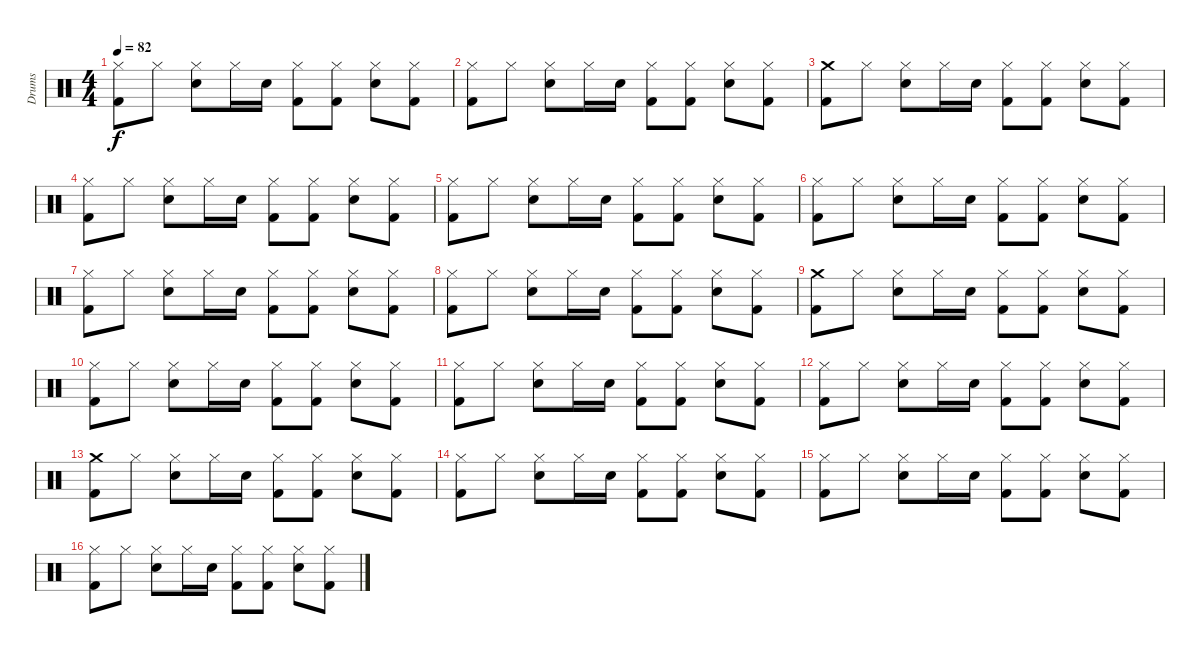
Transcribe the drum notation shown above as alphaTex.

\track ("Drums" "Drums") {instrument percussion}
\staff {score}
\articulation defaults
\ts (4 4)
\tempo 82
\clef neutral
\ks c
("Hi-Hat (closed)" "Kick (hit) 2").8{dy f} "Hi-Hat (closed)".8 ("Hi-Hat (closed)" "Electric Snare (hit)").8 "Hi-Hat (closed)".16 "Electric Snare (hit)".16 ("Hi-Hat (closed)" "Kick (hit) 2").8 ("Hi-Hat (closed)" "Kick (hit) 2").8 ("Hi-Hat (closed)" "Electric Snare (hit)").8 ("Hi-Hat (closed)" "Kick (hit) 2").8 |
("Hi-Hat (closed)" "Kick (hit) 2").8 "Hi-Hat (closed)".8 ("Hi-Hat (closed)" "Electric Snare (hit)").8 "Hi-Hat (closed)".16 "Electric Snare (hit)".16 ("Hi-Hat (closed)" "Kick (hit) 2").8 ("Hi-Hat (closed)" "Kick (hit) 2").8 ("Hi-Hat (closed)" "Electric Snare (hit)").8 ("Hi-Hat (closed)" "Kick (hit) 2").8 |
("Crash medium (hit)" "Kick (hit) 2").8 "Hi-Hat (closed)".8 ("Hi-Hat (closed)" "Electric Snare (hit)").8 "Hi-Hat (closed)".16 "Electric Snare (hit)".16 ("Hi-Hat (closed)" "Kick (hit) 2").8 ("Hi-Hat (closed)" "Kick (hit) 2").8 ("Hi-Hat (closed)" "Electric Snare (hit)").8 ("Hi-Hat (closed)" "Kick (hit) 2").8 |
("Hi-Hat (closed)" "Kick (hit) 2").8 "Hi-Hat (closed)".8 ("Hi-Hat (closed)" "Electric Snare (hit)").8 "Hi-Hat (closed)".16 "Electric Snare (hit)".16 ("Hi-Hat (closed)" "Kick (hit) 2").8 ("Hi-Hat (closed)" "Kick (hit) 2").8 ("Hi-Hat (closed)" "Electric Snare (hit)").8 ("Hi-Hat (closed)" "Kick (hit) 2").8 |
("Hi-Hat (closed)" "Kick (hit) 2").8 "Hi-Hat (closed)".8 ("Hi-Hat (closed)" "Electric Snare (hit)").8 "Hi-Hat (closed)".16 "Electric Snare (hit)".16 ("Hi-Hat (closed)" "Kick (hit) 2").8 ("Hi-Hat (closed)" "Kick (hit) 2").8 ("Hi-Hat (closed)" "Electric Snare (hit)").8 ("Hi-Hat (closed)" "Kick (hit) 2").8 |
("Hi-Hat (closed)" "Kick (hit) 2").8 "Hi-Hat (closed)".8 ("Hi-Hat (closed)" "Electric Snare (hit)").8 "Hi-Hat (closed)".16 "Electric Snare (hit)".16 ("Hi-Hat (closed)" "Kick (hit) 2").8 ("Hi-Hat (closed)" "Kick (hit) 2").8 ("Hi-Hat (closed)" "Electric Snare (hit)").8 ("Hi-Hat (closed)" "Kick (hit) 2").8 |
("Hi-Hat (closed)" "Kick (hit) 2").8 "Hi-Hat (closed)".8 ("Hi-Hat (closed)" "Electric Snare (hit)").8 "Hi-Hat (closed)".16 "Electric Snare (hit)".16 ("Hi-Hat (closed)" "Kick (hit) 2").8 ("Hi-Hat (closed)" "Kick (hit) 2").8 ("Hi-Hat (closed)" "Electric Snare (hit)").8 ("Hi-Hat (closed)" "Kick (hit) 2").8 |
("Hi-Hat (closed)" "Kick (hit) 2").8 "Hi-Hat (closed)".8 ("Hi-Hat (closed)" "Electric Snare (hit)").8 "Hi-Hat (closed)".16 "Electric Snare (hit)".16 ("Hi-Hat (closed)" "Kick (hit) 2").8 ("Hi-Hat (closed)" "Kick (hit) 2").8 ("Hi-Hat (closed)" "Electric Snare (hit)").8 ("Hi-Hat (closed)" "Kick (hit) 2").8 |
("Crash medium (hit)" "Kick (hit) 2").8 "Hi-Hat (closed)".8 ("Hi-Hat (closed)" "Electric Snare (hit)").8 "Hi-Hat (closed)".16 "Electric Snare (hit)".16 ("Hi-Hat (closed)" "Kick (hit) 2").8 ("Hi-Hat (closed)" "Kick (hit) 2").8 ("Hi-Hat (closed)" "Electric Snare (hit)").8 ("Hi-Hat (closed)" "Kick (hit) 2").8 |
("Hi-Hat (closed)" "Kick (hit) 2").8 "Hi-Hat (closed)".8 ("Hi-Hat (closed)" "Electric Snare (hit)").8 "Hi-Hat (closed)".16 "Electric Snare (hit)".16 ("Hi-Hat (closed)" "Kick (hit) 2").8 ("Hi-Hat (closed)" "Kick (hit) 2").8 ("Hi-Hat (closed)" "Electric Snare (hit)").8 ("Hi-Hat (closed)" "Kick (hit) 2").8 |
("Hi-Hat (closed)" "Kick (hit) 2").8 "Hi-Hat (closed)".8 ("Hi-Hat (closed)" "Electric Snare (hit)").8 "Hi-Hat (closed)".16 "Electric Snare (hit)".16 ("Hi-Hat (closed)" "Kick (hit) 2").8 ("Hi-Hat (closed)" "Kick (hit) 2").8 ("Hi-Hat (closed)" "Electric Snare (hit)").8 ("Hi-Hat (closed)" "Kick (hit) 2").8 |
("Hi-Hat (closed)" "Kick (hit) 2").8 "Hi-Hat (closed)".8 ("Hi-Hat (closed)" "Electric Snare (hit)").8 "Hi-Hat (closed)".16 "Electric Snare (hit)".16 ("Hi-Hat (closed)" "Kick (hit) 2").8 ("Hi-Hat (closed)" "Kick (hit) 2").8 ("Hi-Hat (closed)" "Electric Snare (hit)").8 ("Hi-Hat (closed)" "Kick (hit) 2").8 |
("Crash medium (hit)" "Kick (hit) 2").8 "Hi-Hat (closed)".8 ("Hi-Hat (closed)" "Electric Snare (hit)").8 "Hi-Hat (closed)".16 "Electric Snare (hit)".16 ("Hi-Hat (closed)" "Kick (hit) 2").8 ("Hi-Hat (closed)" "Kick (hit) 2").8 ("Hi-Hat (closed)" "Electric Snare (hit)").8 ("Hi-Hat (closed)" "Kick (hit) 2").8 |
("Hi-Hat (closed)" "Kick (hit) 2").8 "Hi-Hat (closed)".8 ("Hi-Hat (closed)" "Electric Snare (hit)").8 "Hi-Hat (closed)".16 "Electric Snare (hit)".16 ("Hi-Hat (closed)" "Kick (hit) 2").8 ("Hi-Hat (closed)" "Kick (hit) 2").8 ("Hi-Hat (closed)" "Electric Snare (hit)").8 ("Hi-Hat (closed)" "Kick (hit) 2").8 |
("Hi-Hat (closed)" "Kick (hit) 2").8 "Hi-Hat (closed)".8 ("Hi-Hat (closed)" "Electric Snare (hit)").8 "Hi-Hat (closed)".16 "Electric Snare (hit)".16 ("Hi-Hat (closed)" "Kick (hit) 2").8 ("Hi-Hat (closed)" "Kick (hit) 2").8 ("Hi-Hat (closed)" "Electric Snare (hit)").8 ("Hi-Hat (closed)" "Kick (hit) 2").8 |
("Hi-Hat (closed)" "Kick (hit) 2").8 "Hi-Hat (closed)".8 ("Hi-Hat (closed)" "Electric Snare (hit)").8 "Hi-Hat (closed)".16 "Electric Snare (hit)".16 ("Hi-Hat (closed)" "Kick (hit) 2").8 ("Hi-Hat (closed)" "Kick (hit) 2").8 ("Hi-Hat (closed)" "Electric Snare (hit)").8 ("Hi-Hat (closed)" "Kick (hit) 2").8
